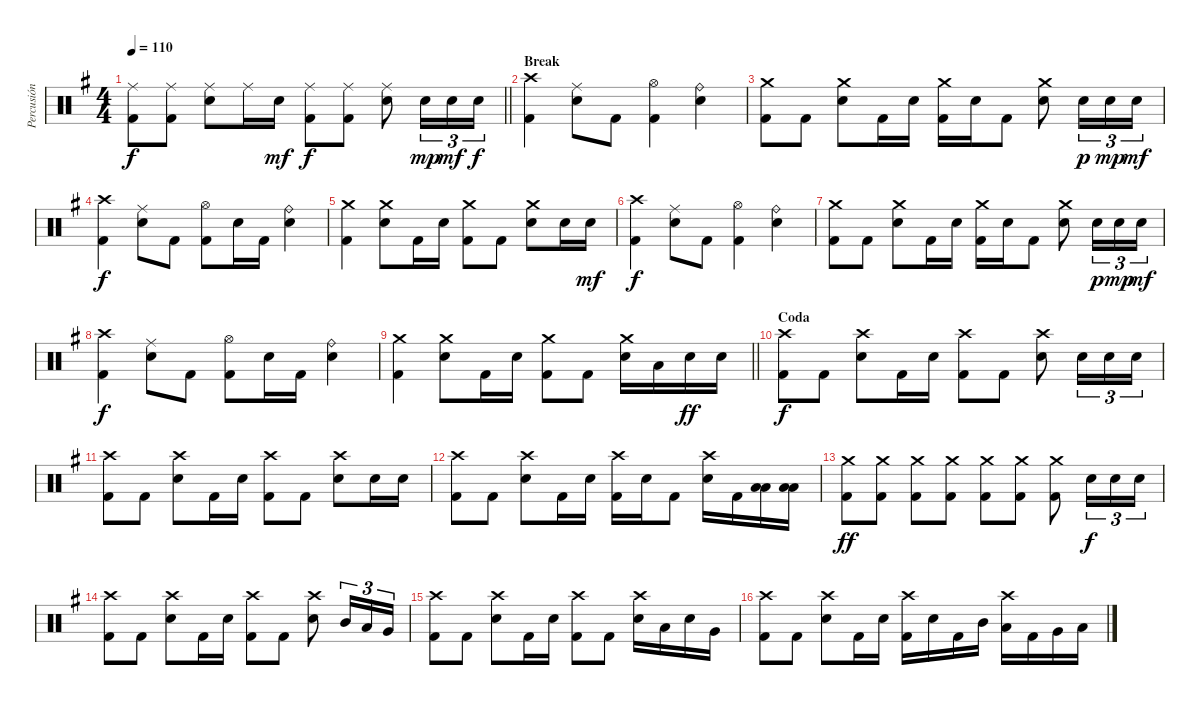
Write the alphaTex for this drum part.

\track ("Percusión" "Percusión") {instrument percussion}
\staff {score}
\articulation defaults
\ts (4 4)
\tempo 110
\clef neutral
\barLineRight lightlight
\ks g
("Ride (middle)" "Kick (hit) 2").8{dy f} ("Ride (middle)" "Kick (hit) 2").8 ("Ride (middle)" "Snare (hit) 2").8 "Ride (middle)".16 "Snare (hit) 2".16{dy mf} ("Ride (middle)" "Kick (hit) 2").8{dy f} ("Ride (middle)" "Kick (hit) 2").8 ("Ride (middle)" "Snare (hit) 2").8 "Snare (hit) 2".16{tu (3 2) dy mp} "Snare (hit) 2".16{tu (3 2) dy mf} "Snare (hit) 2".16{tu (3 2) dy f} |
\section ("" "Break")
("Crash high (hit)" "Kick (hit) 2").4 ("Ride (middle)" "Electric Snare (hit)").8 "Kick (hit) 2".8 ("Hi-Hat (open)" "Kick (hit) 2").4 ("Ride (bell)" "Electric Snare (hit)").4 |
("Crash medium (hit)" "Kick (hit) 2").8 "Kick (hit) 2".8 ("Crash medium (hit)" "Electric Snare (hit)").8 "Kick (hit) 2".16 "Electric Snare (hit)".16 ("Crash medium (hit)" "Kick (hit) 2").16 "Electric Snare (hit)".16 "Kick (hit) 2".8 ("Crash medium (hit)" "Electric Snare (hit)").8 "Electric Snare (hit)".16{tu (3 2) dy p} "Electric Snare (hit)".16{tu (3 2) dy mp} "Electric Snare (hit)".16{tu (3 2) dy mf} |
("Crash high (hit)" "Kick (hit) 2").4{dy f} ("Ride (middle)" "Electric Snare (hit)").8 "Kick (hit) 2".8 ("Hi-Hat (open)" "Kick (hit) 2").8 "Electric Snare (hit)".16 "Kick (hit) 2".16 ("Ride (bell)" "Electric Snare (hit)").4 |
("Crash medium (hit)" "Kick (hit) 2").4 ("Crash medium (hit)" "Electric Snare (hit)").8 "Kick (hit) 2".16 "Electric Snare (hit)".16 ("Crash medium (hit)" "Kick (hit) 2").8 "Kick (hit) 2".8 ("Crash medium (hit)" "Electric Snare (hit)").8 "Electric Snare (hit)".16 "Electric Snare (hit)".16{dy mf} |
("Crash high (hit)" "Kick (hit) 2").4{dy f} ("Ride (middle)" "Electric Snare (hit)").8 "Kick (hit) 2".8 ("Hi-Hat (open)" "Kick (hit) 2").4 ("Ride (bell)" "Electric Snare (hit)").4 |
("Crash medium (hit)" "Kick (hit) 2").8 "Kick (hit) 2".8 ("Crash medium (hit)" "Electric Snare (hit)").8 "Kick (hit) 2".16 "Electric Snare (hit)".16 ("Crash medium (hit)" "Kick (hit) 2").16 "Electric Snare (hit)".16 "Kick (hit) 2".8 ("Crash medium (hit)" "Electric Snare (hit)").8 "Electric Snare (hit)".16{tu (3 2) dy p} "Electric Snare (hit)".16{tu (3 2) dy mp} "Electric Snare (hit)".16{tu (3 2) dy mf} |
("Crash high (hit)" "Kick (hit) 2").4{dy f} ("Ride (middle)" "Electric Snare (hit)").8 "Kick (hit) 2".8 ("Hi-Hat (open)" "Kick (hit) 2").8 "Electric Snare (hit)".16 "Kick (hit) 2".16 ("Ride (bell)" "Electric Snare (hit)").4 |
\barLineRight lightlight
("Crash medium (hit)" "Kick (hit) 2").4 ("Crash medium (hit)" "Electric Snare (hit)").8 "Kick (hit) 2".16 "Electric Snare (hit)".16 ("Crash medium (hit)" "Kick (hit) 2").8 "Kick (hit) 2".8 ("Crash medium (hit)" "Electric Snare (hit)").16 "Low Floor Tom (hit)".16 "Electric Snare (hit)".16{dy ff} "Electric Snare (hit)".16 |
\section ("" "Coda")
("Crash high (hit)" "Kick (hit) 2").8{dy f} "Kick (hit) 2".8 ("Crash high (hit)" "Snare (hit) 2").8 "Kick (hit) 2".16 "Snare (hit) 2".16 ("Crash high (hit)" "Kick (hit) 2").8 "Kick (hit) 2".8 ("Crash high (hit)" "Snare (hit) 2").8 "Snare (hit) 2".16{tu (3 2)} "Snare (hit) 2".16{tu (3 2)} "Snare (hit) 2".16{tu (3 2)} |
("Crash high (hit)" "Kick (hit) 2").8 "Kick (hit) 2".8 ("Crash high (hit)" "Snare (hit) 2").8 "Kick (hit) 2".16 "Snare (hit) 2".16 ("Crash high (hit)" "Kick (hit) 2").8 "Kick (hit) 2".8 ("Crash high (hit)" "Snare (hit) 2").8 "Snare (hit) 2".16 "Snare (hit) 2".16 |
("Crash high (hit)" "Kick (hit) 2").8 "Kick (hit) 2".8 ("Crash high (hit)" "Snare (hit) 2").8 "Kick (hit) 2".16 "Snare (hit) 2".16 ("Crash high (hit)" "Kick (hit) 2").16 "Snare (hit) 2".16 "Kick (hit) 2".8 ("Crash high (hit)" "Snare (hit) 2").16 "Kick (hit) 2".16 ("Low Tom (hit)" "Low Tom (hit)").16{bd 30} ("Low Floor Tom (hit)" "Low Floor Tom (hit)").16{bd 30} |
("Crash medium (hit)" "Kick (hit) 2").8{dy ff} ("Crash medium (hit)" "Kick (hit) 2").8 ("Crash medium (hit)" "Kick (hit) 2").8 ("Crash medium (hit)" "Kick (hit) 2").8 ("Crash medium (hit)" "Kick (hit) 2").8 ("Crash medium (hit)" "Kick (hit) 2").8 ("Crash medium (hit)" "Kick (hit) 2").8 "Snare (hit) 2".16{tu (3 2) dy f} "Snare (hit) 2".16{tu (3 2)} "Snare (hit) 2".16{tu (3 2)} |
("Crash high (hit)" "Kick (hit) 2").8 "Kick (hit) 2".8 ("Crash high (hit)" "Snare (hit) 2").8 "Kick (hit) 2".16 "Snare (hit) 2".16 ("Crash high (hit)" "Kick (hit) 2").8 "Kick (hit) 2".8 ("Crash high (hit)" "Snare (hit) 2").8 "Mid Tom (hit)".16{tu (3 2)} "Low Tom (hit)".16{tu (3 2)} "Very Low Tom (hit)".16{tu (3 2)} |
("Crash high (hit)" "Kick (hit) 2").8 "Kick (hit) 2".8 ("Crash high (hit)" "Snare (hit) 2").8 "Kick (hit) 2".16 "Snare (hit) 2".16 ("Crash high (hit)" "Kick (hit) 2").8 "Kick (hit) 2".8 ("Crash high (hit)" "Snare (hit) 2").16 "Low Tom (hit)".16 "Snare (hit) 2".16 "Very Low Tom (hit)".16 |
("Crash high (hit)" "Kick (hit) 2").8 "Kick (hit) 2".8 ("Crash high (hit)" "Snare (hit) 2").8 "Kick (hit) 2".16 "Snare (hit) 2".16 ("Crash high (hit)" "Kick (hit) 2").16 "Snare (hit) 2".16 "Kick (hit) 2".16 "Mid Tom (hit)".16 ("Crash high (hit)" "Low Tom (hit)").16 "Kick (hit) 2".16 "Very Low Tom (hit)".16 "Low Floor Tom (hit)".16
